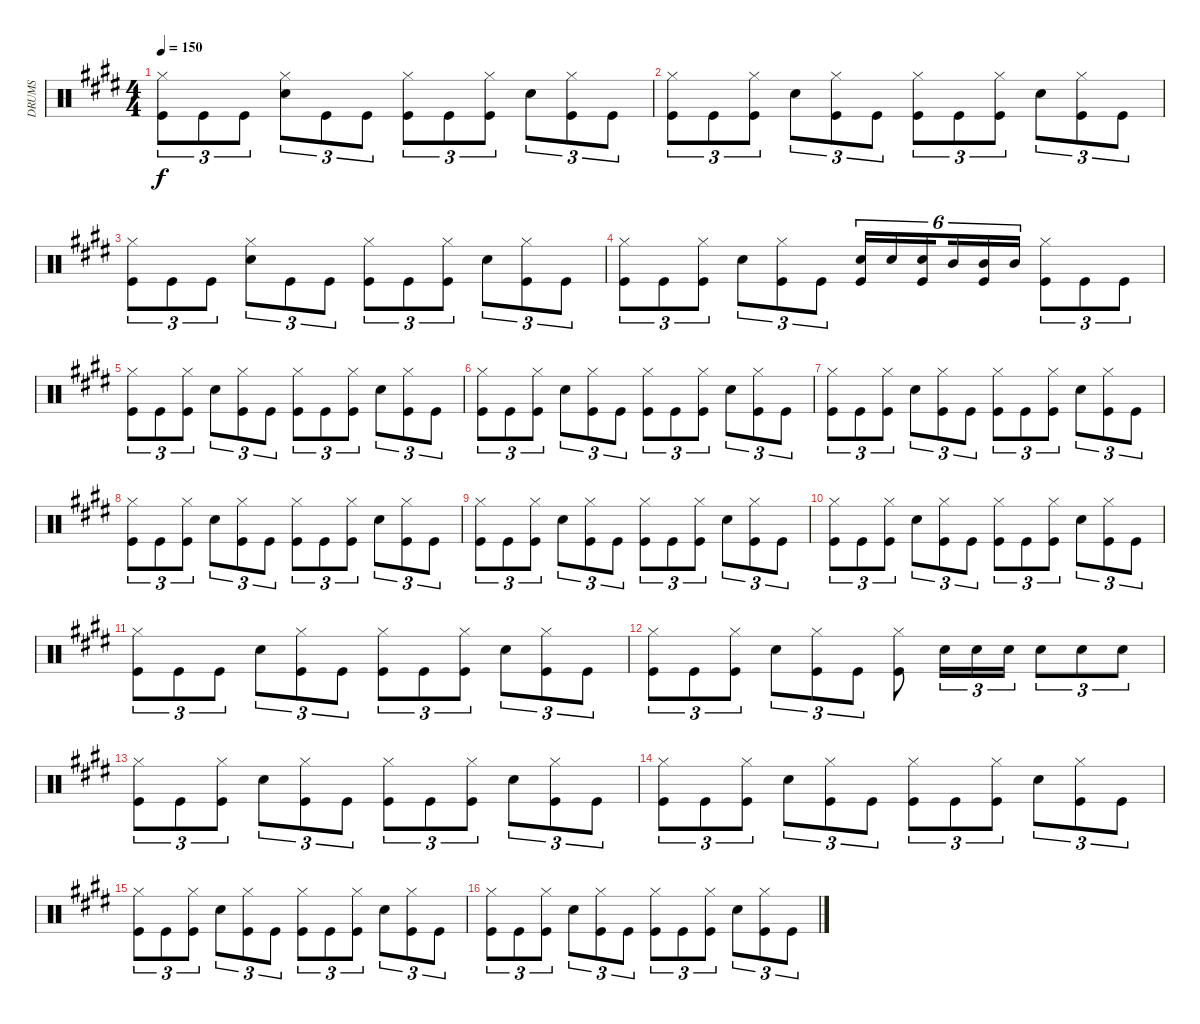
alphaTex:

\track ("DRUMS" "DRUMS") {instrument percussion}
\staff {score}
\articulation defaults
\ts (4 4)
\tempo 150
\clef neutral
\ks e
("Hi-Hat (closed)" "Kick (hit)").8{tu (3 2) dy f} "Kick (hit)".8{tu (3 2)} "Kick (hit)".8{tu (3 2)} ("Hi-Hat (closed)" "Snare (hit) 2").8{tu (3 2)} "Kick (hit)".8{tu (3 2)} "Kick (hit)".8{tu (3 2)} ("Hi-Hat (closed)" "Kick (hit)").8{tu (3 2)} "Kick (hit)".8{tu (3 2)} ("Hi-Hat (closed)" "Kick (hit)").8{tu (3 2)} "Snare (hit) 2".8{tu (3 2)} ("Hi-Hat (closed)" "Kick (hit)").8{tu (3 2)} "Kick (hit)".8{tu (3 2)} |
("Hi-Hat (closed)" "Kick (hit)").8{tu (3 2)} "Kick (hit)".8{tu (3 2)} ("Hi-Hat (closed)" "Kick (hit)").8{tu (3 2)} "Snare (hit) 2".8{tu (3 2)} ("Hi-Hat (closed)" "Kick (hit)").8{tu (3 2)} "Kick (hit)".8{tu (3 2)} ("Hi-Hat (closed)" "Kick (hit)").8{tu (3 2)} "Kick (hit)".8{tu (3 2)} ("Hi-Hat (closed)" "Kick (hit)").8{tu (3 2)} "Snare (hit) 2".8{tu (3 2)} ("Hi-Hat (closed)" "Kick (hit)").8{tu (3 2)} "Kick (hit)".8{tu (3 2)} |
("Hi-Hat (closed)" "Kick (hit)").8{tu (3 2)} "Kick (hit)".8{tu (3 2)} "Kick (hit)".8{tu (3 2)} ("Hi-Hat (closed)" "Snare (hit) 2").8{tu (3 2)} "Kick (hit)".8{tu (3 2)} "Kick (hit)".8{tu (3 2)} ("Hi-Hat (closed)" "Kick (hit)").8{tu (3 2)} "Kick (hit)".8{tu (3 2)} ("Hi-Hat (closed)" "Kick (hit)").8{tu (3 2)} "Snare (hit) 2".8{tu (3 2)} ("Hi-Hat (closed)" "Kick (hit)").8{tu (3 2)} "Kick (hit)".8{tu (3 2)} |
("Hi-Hat (closed)" "Kick (hit)").8{tu (3 2)} "Kick (hit)".8{tu (3 2)} ("Hi-Hat (closed)" "Kick (hit)").8{tu (3 2)} "Snare (hit) 2".8{tu (3 2)} ("Hi-Hat (closed)" "Kick (hit)").8{tu (3 2)} "Kick (hit)".8{tu (3 2)} ("Snare (hit) 2" "Kick (hit)").16{tu (6 4)} "Snare (hit) 2".16{tu (6 4)} ("Snare (hit) 2" "Kick (hit)").16{tu (6 4) beam splitsecondary} "Mid Tom (hit)".16{tu (6 4)} ("Mid Tom (hit)" "Kick (hit)").16{tu (6 4)} "Mid Tom (hit)".16{tu (6 4)} ("Hi-Hat (closed)" "Kick (hit)").8{tu (3 2)} "Kick (hit)".8{tu (3 2)} "Kick (hit)".8{tu (3 2)} |
("Hi-Hat (closed)" "Kick (hit)").8{tu (3 2)} "Kick (hit)".8{tu (3 2)} ("Hi-Hat (closed)" "Kick (hit)").8{tu (3 2)} "Snare (hit) 2".8{tu (3 2)} ("Hi-Hat (closed)" "Kick (hit)").8{tu (3 2)} "Kick (hit)".8{tu (3 2)} ("Hi-Hat (closed)" "Kick (hit)").8{tu (3 2)} "Kick (hit)".8{tu (3 2)} ("Hi-Hat (closed)" "Kick (hit)").8{tu (3 2)} "Snare (hit) 2".8{tu (3 2)} ("Hi-Hat (closed)" "Kick (hit)").8{tu (3 2)} "Kick (hit)".8{tu (3 2)} |
("Hi-Hat (closed)" "Kick (hit)").8{tu (3 2)} "Kick (hit)".8{tu (3 2)} ("Hi-Hat (closed)" "Kick (hit)").8{tu (3 2)} "Snare (hit) 2".8{tu (3 2)} ("Hi-Hat (closed)" "Kick (hit)").8{tu (3 2)} "Kick (hit)".8{tu (3 2)} ("Hi-Hat (closed)" "Kick (hit)").8{tu (3 2)} "Kick (hit)".8{tu (3 2)} ("Hi-Hat (closed)" "Kick (hit)").8{tu (3 2)} "Snare (hit) 2".8{tu (3 2)} ("Hi-Hat (closed)" "Kick (hit)").8{tu (3 2)} "Kick (hit)".8{tu (3 2)} |
("Hi-Hat (closed)" "Kick (hit)").8{tu (3 2)} "Kick (hit)".8{tu (3 2)} ("Hi-Hat (closed)" "Kick (hit)").8{tu (3 2)} "Snare (hit) 2".8{tu (3 2)} ("Hi-Hat (closed)" "Kick (hit)").8{tu (3 2)} "Kick (hit)".8{tu (3 2)} ("Hi-Hat (closed)" "Kick (hit)").8{tu (3 2)} "Kick (hit)".8{tu (3 2)} ("Hi-Hat (closed)" "Kick (hit)").8{tu (3 2)} "Snare (hit) 2".8{tu (3 2)} ("Hi-Hat (closed)" "Kick (hit)").8{tu (3 2)} "Kick (hit)".8{tu (3 2)} |
("Hi-Hat (closed)" "Kick (hit)").8{tu (3 2)} "Kick (hit)".8{tu (3 2)} ("Hi-Hat (closed)" "Kick (hit)").8{tu (3 2)} "Snare (hit) 2".8{tu (3 2)} ("Hi-Hat (closed)" "Kick (hit)").8{tu (3 2)} "Kick (hit)".8{tu (3 2)} ("Hi-Hat (closed)" "Kick (hit)").8{tu (3 2)} "Kick (hit)".8{tu (3 2)} ("Hi-Hat (closed)" "Kick (hit)").8{tu (3 2)} "Snare (hit) 2".8{tu (3 2)} ("Hi-Hat (closed)" "Kick (hit)").8{tu (3 2)} "Kick (hit)".8{tu (3 2)} |
("Hi-Hat (closed)" "Kick (hit)").8{tu (3 2)} "Kick (hit)".8{tu (3 2)} ("Hi-Hat (closed)" "Kick (hit)").8{tu (3 2)} "Snare (hit) 2".8{tu (3 2)} ("Hi-Hat (closed)" "Kick (hit)").8{tu (3 2)} "Kick (hit)".8{tu (3 2)} ("Hi-Hat (closed)" "Kick (hit)").8{tu (3 2)} "Kick (hit)".8{tu (3 2)} ("Hi-Hat (closed)" "Kick (hit)").8{tu (3 2)} "Snare (hit) 2".8{tu (3 2)} ("Hi-Hat (closed)" "Kick (hit)").8{tu (3 2)} "Kick (hit)".8{tu (3 2)} |
("Hi-Hat (closed)" "Kick (hit)").8{tu (3 2)} "Kick (hit)".8{tu (3 2)} ("Hi-Hat (closed)" "Kick (hit)").8{tu (3 2)} "Snare (hit) 2".8{tu (3 2)} ("Hi-Hat (closed)" "Kick (hit)").8{tu (3 2)} "Kick (hit)".8{tu (3 2)} ("Hi-Hat (closed)" "Kick (hit)").8{tu (3 2)} "Kick (hit)".8{tu (3 2)} ("Hi-Hat (closed)" "Kick (hit)").8{tu (3 2)} "Snare (hit) 2".8{tu (3 2)} ("Hi-Hat (closed)" "Kick (hit)").8{tu (3 2)} "Kick (hit)".8{tu (3 2)} |
("Hi-Hat (closed)" "Kick (hit)").8{tu (3 2)} "Kick (hit)".8{tu (3 2)} "Kick (hit)".8{tu (3 2)} "Snare (hit) 2".8{tu (3 2)} ("Hi-Hat (closed)" "Kick (hit)").8{tu (3 2)} "Kick (hit)".8{tu (3 2)} ("Hi-Hat (closed)" "Kick (hit)").8{tu (3 2)} "Kick (hit)".8{tu (3 2)} ("Hi-Hat (closed)" "Kick (hit)").8{tu (3 2)} "Snare (hit) 2".8{tu (3 2)} ("Hi-Hat (closed)" "Kick (hit)").8{tu (3 2)} "Kick (hit)".8{tu (3 2)} |
("Hi-Hat (closed)" "Kick (hit)").8{tu (3 2)} "Kick (hit)".8{tu (3 2)} ("Hi-Hat (closed)" "Kick (hit)").8{tu (3 2)} "Snare (hit) 2".8{tu (3 2)} ("Hi-Hat (closed)" "Kick (hit)").8{tu (3 2)} "Kick (hit)".8{tu (3 2)} ("Hi-Hat (closed)" "Kick (hit)").8 "Snare (hit) 2".16{tu (3 2)} "Snare (hit) 2".16{tu (3 2)} "Snare (hit) 2".16{tu (3 2)} "Snare (hit) 2".8{tu (3 2)} "Snare (hit) 2".8{tu (3 2)} "Snare (hit) 2".8{tu (3 2)} |
("Hi-Hat (closed)" "Kick (hit)").8{tu (3 2)} "Kick (hit)".8{tu (3 2)} ("Hi-Hat (closed)" "Kick (hit)").8{tu (3 2)} "Snare (hit) 2".8{tu (3 2)} ("Hi-Hat (closed)" "Kick (hit)").8{tu (3 2)} "Kick (hit)".8{tu (3 2)} ("Hi-Hat (closed)" "Kick (hit)").8{tu (3 2)} "Kick (hit)".8{tu (3 2)} ("Hi-Hat (closed)" "Kick (hit)").8{tu (3 2)} "Snare (hit) 2".8{tu (3 2)} ("Hi-Hat (closed)" "Kick (hit)").8{tu (3 2)} "Kick (hit)".8{tu (3 2)} |
("Hi-Hat (closed)" "Kick (hit)").8{tu (3 2)} "Kick (hit)".8{tu (3 2)} ("Hi-Hat (closed)" "Kick (hit)").8{tu (3 2)} "Snare (hit) 2".8{tu (3 2)} ("Hi-Hat (closed)" "Kick (hit)").8{tu (3 2)} "Kick (hit)".8{tu (3 2)} ("Hi-Hat (closed)" "Kick (hit)").8{tu (3 2)} "Kick (hit)".8{tu (3 2)} ("Hi-Hat (closed)" "Kick (hit)").8{tu (3 2)} "Snare (hit) 2".8{tu (3 2)} ("Hi-Hat (closed)" "Kick (hit)").8{tu (3 2)} "Kick (hit)".8{tu (3 2)} |
("Hi-Hat (closed)" "Kick (hit)").8{tu (3 2)} "Kick (hit)".8{tu (3 2)} ("Hi-Hat (closed)" "Kick (hit)").8{tu (3 2)} "Snare (hit) 2".8{tu (3 2)} ("Hi-Hat (closed)" "Kick (hit)").8{tu (3 2)} "Kick (hit)".8{tu (3 2)} ("Hi-Hat (closed)" "Kick (hit)").8{tu (3 2)} "Kick (hit)".8{tu (3 2)} ("Hi-Hat (closed)" "Kick (hit)").8{tu (3 2)} "Snare (hit) 2".8{tu (3 2)} ("Hi-Hat (closed)" "Kick (hit)").8{tu (3 2)} "Kick (hit)".8{tu (3 2)} |
("Hi-Hat (closed)" "Kick (hit)").8{tu (3 2)} "Kick (hit)".8{tu (3 2)} ("Hi-Hat (closed)" "Kick (hit)").8{tu (3 2)} "Snare (hit) 2".8{tu (3 2)} ("Hi-Hat (closed)" "Kick (hit)").8{tu (3 2)} "Kick (hit)".8{tu (3 2)} ("Hi-Hat (closed)" "Kick (hit)").8{tu (3 2)} "Kick (hit)".8{tu (3 2)} ("Hi-Hat (closed)" "Kick (hit)").8{tu (3 2)} "Snare (hit) 2".8{tu (3 2)} ("Hi-Hat (closed)" "Kick (hit)").8{tu (3 2)} "Kick (hit)".8{tu (3 2)}
